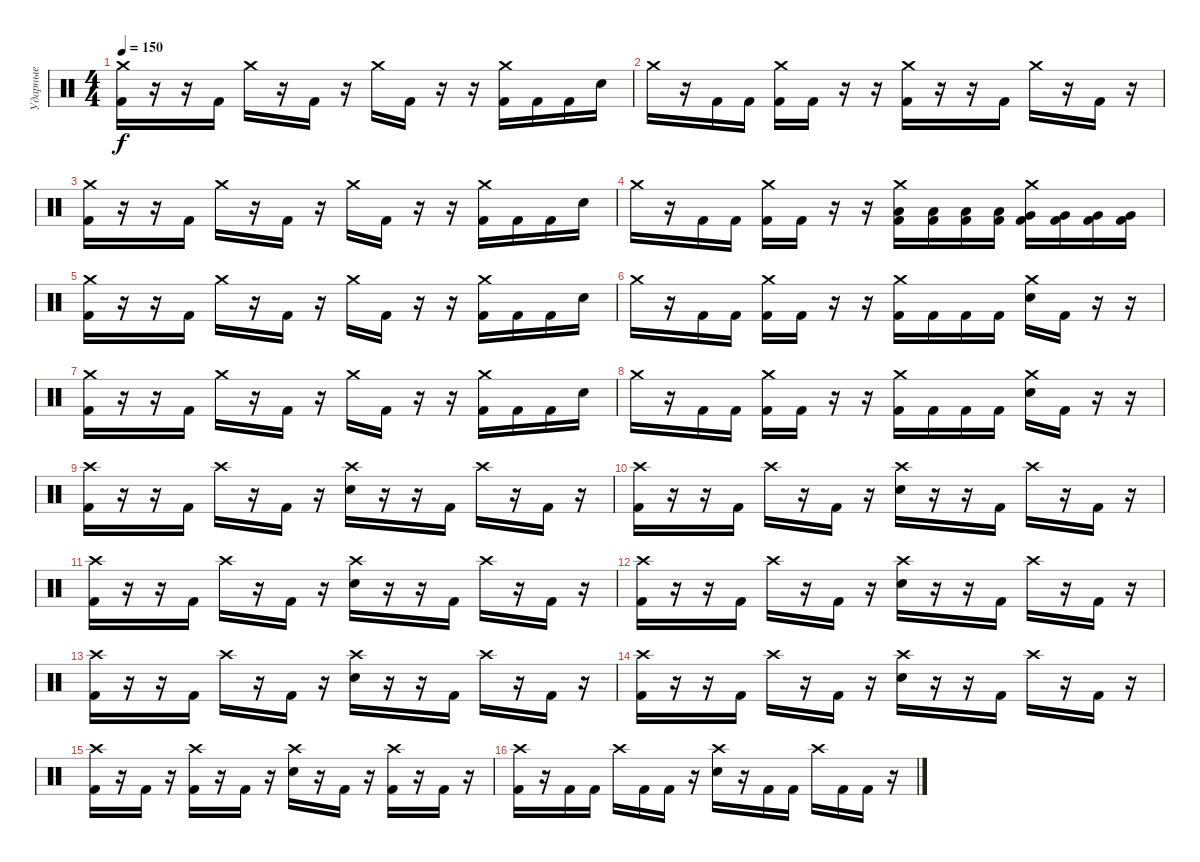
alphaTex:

\track ("Ударные" "Ударные") {instrument percussion}
\staff {score}
\articulation defaults
\ts (4 4)
\tempo 150
\clef neutral
\ks c
("Crash medium (hit)" "Kick (hit) 2").16{dy f} r.16 r.16 "Kick (hit) 2".16 "Crash medium (hit)".16 r.16 "Kick (hit) 2".16 r.16 "Crash medium (hit)".16 "Kick (hit) 2".16 r.16 r.16 ("Crash medium (hit)" "Kick (hit) 2").16 "Kick (hit) 2".16 "Kick (hit) 2".16 "Electric Snare (hit)".16 |
"Crash medium (hit)".16 r.16 "Kick (hit) 2".16 "Kick (hit) 2".16 ("Crash medium (hit)" "Kick (hit) 2").16 "Kick (hit) 2".16 r.16 r.16 ("Crash medium (hit)" "Kick (hit) 2").16 r.16 r.16 "Kick (hit) 2".16 "Crash medium (hit)".16 r.16 "Kick (hit) 2".16 r.16 |
("Crash medium (hit)" "Kick (hit) 2").16 r.16 r.16 "Kick (hit) 2".16 "Crash medium (hit)".16 r.16 "Kick (hit) 2".16 r.16 "Crash medium (hit)".16 "Kick (hit) 2".16 r.16 r.16 ("Crash medium (hit)" "Kick (hit) 2").16 "Kick (hit) 2".16 "Kick (hit) 2".16 "Electric Snare (hit)".16 |
"Crash medium (hit)".16 r.16 "Kick (hit) 2".16 "Kick (hit) 2".16 ("Crash medium (hit)" "Kick (hit) 2").16 "Kick (hit) 2".16 r.16 r.16 ("Crash medium (hit)" "Low Tom (hit)" "Kick (hit) 2").16 ("Low Tom (hit)" "Kick (hit) 2").16 ("Low Tom (hit)" "Kick (hit) 2").16 ("Low Tom (hit)" "Kick (hit) 2").16 ("Crash medium (hit)" "Very Low Tom (hit)" "Kick (hit) 2").16 ("Very Low Tom (hit)" "Kick (hit) 2").16 ("Very Low Tom (hit)" "Kick (hit) 2").16 ("Very Low Tom (hit)" "Kick (hit) 2").16 |
("Crash medium (hit)" "Kick (hit) 2").16 r.16 r.16 "Kick (hit) 2".16 "Crash medium (hit)".16 r.16 "Kick (hit) 2".16 r.16 "Crash medium (hit)".16 "Kick (hit) 2".16 r.16 r.16 ("Crash medium (hit)" "Kick (hit) 2").16 "Kick (hit) 2".16 "Kick (hit) 2".16 "Electric Snare (hit)".16 |
"Crash medium (hit)".16 r.16 "Kick (hit) 2".16 "Kick (hit) 2".16 ("Crash medium (hit)" "Kick (hit) 2").16 "Kick (hit) 2".16 r.16 r.16 ("Crash medium (hit)" "Kick (hit) 2").16 "Kick (hit) 2".16 "Kick (hit) 2".16 "Kick (hit) 2".16 ("Crash medium (hit)" "Electric Snare (hit)").16 "Kick (hit) 2".16 r.16 r.16 |
("Crash medium (hit)" "Kick (hit) 2").16 r.16 r.16 "Kick (hit) 2".16 "Crash medium (hit)".16 r.16 "Kick (hit) 2".16 r.16 "Crash medium (hit)".16 "Kick (hit) 2".16 r.16 r.16 ("Crash medium (hit)" "Kick (hit) 2").16 "Kick (hit) 2".16 "Kick (hit) 2".16 "Electric Snare (hit)".16 |
"Crash medium (hit)".16 r.16 "Kick (hit) 2".16 "Kick (hit) 2".16 ("Crash medium (hit)" "Kick (hit) 2").16 "Kick (hit) 2".16 r.16 r.16 ("Crash medium (hit)" "Kick (hit) 2").16 "Kick (hit) 2".16 "Kick (hit) 2".16 "Kick (hit) 2".16 ("Crash medium (hit)" "Electric Snare (hit)").16 "Kick (hit) 2".16 r.16 r.16 |
("Crash high (hit)" "Kick (hit) 2").16 r.16 r.16 "Kick (hit) 2".16 "Crash high (hit)".16 r.16 "Kick (hit) 2".16 r.16 ("Crash high (hit)" "Electric Snare (hit)").16 r.16 r.16 "Kick (hit) 2".16 "Crash high (hit)".16 r.16 "Kick (hit) 2".16 r.16 |
("Crash high (hit)" "Kick (hit) 2").16 r.16 r.16 "Kick (hit) 2".16 "Crash high (hit)".16 r.16 "Kick (hit) 2".16 r.16 ("Crash high (hit)" "Electric Snare (hit)").16 r.16 r.16 "Kick (hit) 2".16 "Crash high (hit)".16 r.16 "Kick (hit) 2".16 r.16 |
("Crash high (hit)" "Kick (hit) 2").16 r.16 r.16 "Kick (hit) 2".16 "Crash high (hit)".16 r.16 "Kick (hit) 2".16 r.16 ("Crash high (hit)" "Electric Snare (hit)").16 r.16 r.16 "Kick (hit) 2".16 "Crash high (hit)".16 r.16 "Kick (hit) 2".16 r.16 |
("Crash high (hit)" "Kick (hit) 2").16 r.16 r.16 "Kick (hit) 2".16 "Crash high (hit)".16 r.16 "Kick (hit) 2".16 r.16 ("Crash high (hit)" "Electric Snare (hit)").16 r.16 r.16 "Kick (hit) 2".16 "Crash high (hit)".16 r.16 "Kick (hit) 2".16 r.16 |
("Crash high (hit)" "Kick (hit) 2").16 r.16 r.16 "Kick (hit) 2".16 "Crash high (hit)".16 r.16 "Kick (hit) 2".16 r.16 ("Crash high (hit)" "Electric Snare (hit)").16 r.16 r.16 "Kick (hit) 2".16 "Crash high (hit)".16 r.16 "Kick (hit) 2".16 r.16 |
("Crash high (hit)" "Kick (hit) 2").16 r.16 r.16 "Kick (hit) 2".16 "Crash high (hit)".16 r.16 "Kick (hit) 2".16 r.16 ("Crash high (hit)" "Electric Snare (hit)").16 r.16 r.16 "Kick (hit) 2".16 "Crash high (hit)".16 r.16 "Kick (hit) 2".16 r.16 |
("Crash high (hit)" "Kick (hit) 2").16 r.16 "Kick (hit) 2".16 r.16 ("Crash high (hit)" "Kick (hit) 2").16 r.16 "Kick (hit) 2".16 r.16 ("Crash high (hit)" "Electric Snare (hit)").16 r.16 "Kick (hit) 2".16 r.16 ("Crash high (hit)" "Kick (hit) 2").16 r.16 "Kick (hit) 2".16 r.16 |
("Crash high (hit)" "Kick (hit) 2").16 r.16 "Kick (hit) 2".16 "Kick (hit) 2".16 "Crash high (hit)".16 "Kick (hit) 2".16 "Kick (hit) 2".16 r.16 ("Crash high (hit)" "Electric Snare (hit)").16 r.16 "Kick (hit) 2".16 "Kick (hit) 2".16 "Crash high (hit)".16 "Kick (hit) 2".16 "Kick (hit) 2".16 r.16
